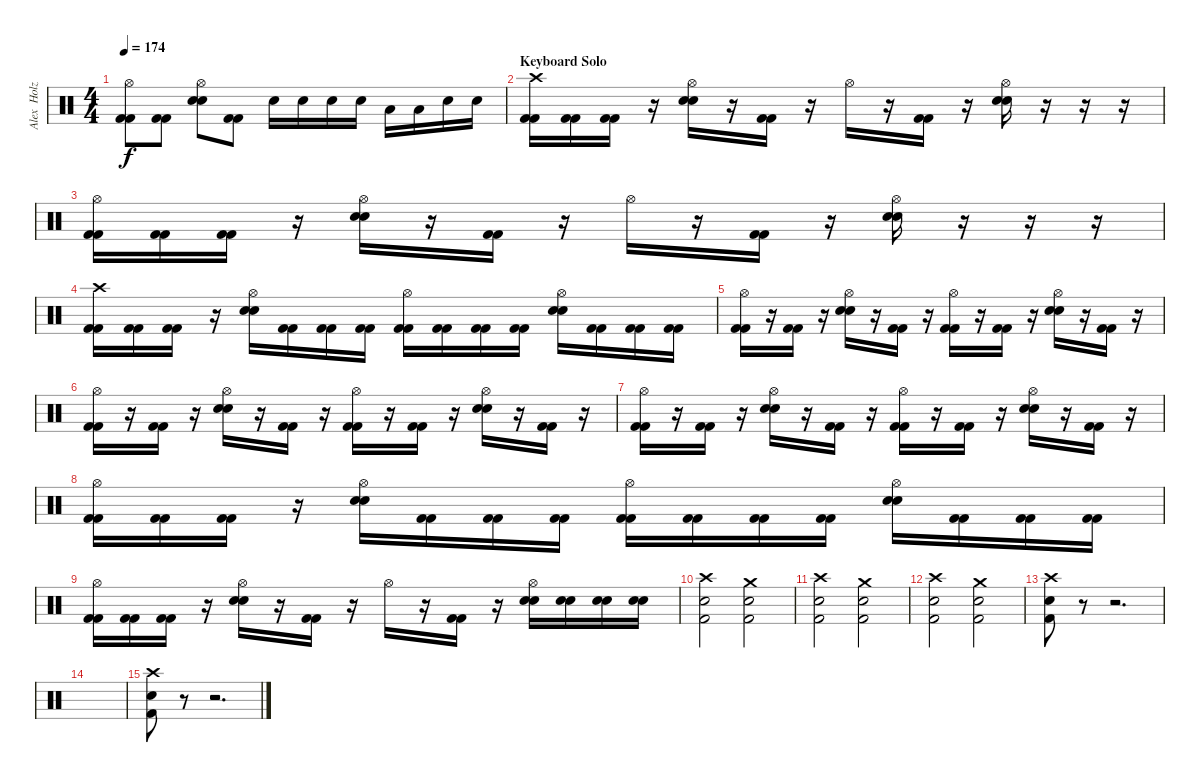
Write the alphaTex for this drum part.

\track ("Alex  Holzwarth (Drums)" "Alex  Holz") {instrument percussion}
\staff {score}
\articulation defaults
\ts (4 4)
\tempo 174
\clef neutral
\ks c
("Hi-Hat (open)" "Kick (hit) 2" "Kick (hit) 2").8{dy f} ("Kick (hit) 2" "Kick (hit) 2").8 ("Hi-Hat (open)" "Snare (hit) 2" "Snare (hit) 2").8 ("Kick (hit) 2" "Kick (hit) 2").8 "Snare (hit) 2".16 "Snare (hit) 2".16 "Snare (hit) 2".16 "Snare (hit) 2".16 "Low Tom (hit)".16 "Low Tom (hit)".16 "Snare (hit) 2".16 "Snare (hit) 2".16 |
\section ("" "Keyboard Solo")
("Crash high (hit)" "Kick (hit) 2" "Kick (hit) 2").16 ("Kick (hit) 2" "Kick (hit) 2").16 ("Kick (hit) 2" "Kick (hit) 2").16 r.16 ("Hi-Hat (open)" "Snare (hit) 2" "Snare (hit) 2").16 r.16 ("Kick (hit) 2" "Kick (hit) 2").16 r.16 "Hi-Hat (open)".16 r.16 ("Kick (hit) 2" "Kick (hit) 2").16 r.16 ("Hi-Hat (open)" "Snare (hit) 2" "Snare (hit) 2").16 r.16 r.16 r.16 |
("Hi-Hat (open)" "Kick (hit) 2" "Kick (hit) 2").16 ("Kick (hit) 2" "Kick (hit) 2").16 ("Kick (hit) 2" "Kick (hit) 2").16 r.16 ("Hi-Hat (open)" "Snare (hit) 2" "Snare (hit) 2").16 r.16 ("Kick (hit) 2" "Kick (hit) 2").16 r.16 "Hi-Hat (open)".16 r.16 ("Kick (hit) 2" "Kick (hit) 2").16 r.16 ("Hi-Hat (open)" "Snare (hit) 2" "Snare (hit) 2").16 r.16 r.16 r.16 |
("Crash high (hit)" "Kick (hit) 2" "Kick (hit) 2").16 ("Kick (hit) 2" "Kick (hit) 2").16 ("Kick (hit) 2" "Kick (hit) 2").16 r.16 ("Hi-Hat (open)" "Snare (hit) 2" "Snare (hit) 2").16 ("Kick (hit) 2" "Kick (hit) 2").16 ("Kick (hit) 2" "Kick (hit) 2").16 ("Kick (hit) 2" "Kick (hit) 2").16 ("Hi-Hat (open)" "Kick (hit) 2" "Kick (hit) 2").16 ("Kick (hit) 2" "Kick (hit) 2").16 ("Kick (hit) 2" "Kick (hit) 2").16 ("Kick (hit) 2" "Kick (hit) 2").16 ("Hi-Hat (open)" "Snare (hit) 2" "Snare (hit) 2").16 ("Kick (hit) 2" "Kick (hit) 2").16 ("Kick (hit) 2" "Kick (hit) 2").16 ("Kick (hit) 2" "Kick (hit) 2").16 |
("Hi-Hat (open)" "Kick (hit) 2" "Kick (hit) 2").16 r.16 ("Kick (hit) 2" "Kick (hit) 2").16 r.16 ("Hi-Hat (open)" "Snare (hit) 2" "Snare (hit) 2").16 r.16 ("Kick (hit) 2" "Kick (hit) 2").16 r.16 ("Hi-Hat (open)" "Kick (hit) 2" "Kick (hit) 2").16 r.16 ("Kick (hit) 2" "Kick (hit) 2").16 r.16 ("Hi-Hat (open)" "Snare (hit) 2" "Snare (hit) 2").16 r.16 ("Kick (hit) 2" "Kick (hit) 2").16 r.16 |
("Hi-Hat (open)" "Kick (hit) 2" "Kick (hit) 2").16 r.16 ("Kick (hit) 2" "Kick (hit) 2").16 r.16 ("Hi-Hat (open)" "Snare (hit) 2" "Snare (hit) 2").16 r.16 ("Kick (hit) 2" "Kick (hit) 2").16 r.16 ("Hi-Hat (open)" "Kick (hit) 2" "Kick (hit) 2").16 r.16 ("Kick (hit) 2" "Kick (hit) 2").16 r.16 ("Hi-Hat (open)" "Snare (hit) 2" "Snare (hit) 2").16 r.16 ("Kick (hit) 2" "Kick (hit) 2").16 r.16 |
("Hi-Hat (open)" "Kick (hit) 2" "Kick (hit) 2").16 r.16 ("Kick (hit) 2" "Kick (hit) 2").16 r.16 ("Hi-Hat (open)" "Snare (hit) 2" "Snare (hit) 2").16 r.16 ("Kick (hit) 2" "Kick (hit) 2").16 r.16 ("Hi-Hat (open)" "Kick (hit) 2" "Kick (hit) 2").16 r.16 ("Kick (hit) 2" "Kick (hit) 2").16 r.16 ("Hi-Hat (open)" "Snare (hit) 2" "Snare (hit) 2").16 r.16 ("Kick (hit) 2" "Kick (hit) 2").16 r.16 |
("Hi-Hat (open)" "Kick (hit) 2" "Kick (hit) 2").16 ("Kick (hit) 2" "Kick (hit) 2").16 ("Kick (hit) 2" "Kick (hit) 2").16 r.16 ("Hi-Hat (open)" "Snare (hit) 2" "Snare (hit) 2").16 ("Kick (hit) 2" "Kick (hit) 2").16 ("Kick (hit) 2" "Kick (hit) 2").16 ("Kick (hit) 2" "Kick (hit) 2").16 ("Hi-Hat (open)" "Kick (hit) 2" "Kick (hit) 2").16 ("Kick (hit) 2" "Kick (hit) 2").16 ("Kick (hit) 2" "Kick (hit) 2").16 ("Kick (hit) 2" "Kick (hit) 2").16 ("Hi-Hat (open)" "Snare (hit) 2" "Snare (hit) 2").16 ("Kick (hit) 2" "Kick (hit) 2").16 ("Kick (hit) 2" "Kick (hit) 2").16 ("Kick (hit) 2" "Kick (hit) 2").16 |
("Hi-Hat (open)" "Kick (hit) 2" "Kick (hit) 2").16 ("Kick (hit) 2" "Kick (hit) 2").16 ("Kick (hit) 2" "Kick (hit) 2").16 r.16 ("Hi-Hat (open)" "Snare (hit) 2" "Snare (hit) 2").16 r.16 ("Kick (hit) 2" "Kick (hit) 2").16 r.16 "Hi-Hat (open)".16 r.16 ("Kick (hit) 2" "Kick (hit) 2").16 r.16 ("Hi-Hat (open)" "Snare (hit) 2" "Snare (hit) 2").16 ("Snare (hit) 2" "Snare (hit) 2").16 ("Snare (hit) 2" "Snare (hit) 2").16 ("Snare (hit) 2" "Snare (hit) 2").16 |
("Crash high (hit)" "Snare (hit) 2" "Kick (hit) 2").2 ("Crash medium (hit)" "Snare (hit) 2" "Kick (hit) 2").2 |
("Crash high (hit)" "Snare (hit) 2" "Kick (hit) 2").2 ("Crash medium (hit)" "Snare (hit) 2" "Kick (hit) 2").2 |
("Crash high (hit)" "Snare (hit) 2" "Kick (hit) 2").2 ("Crash medium (hit)" "Snare (hit) 2" "Kick (hit) 2").2 |
("Crash high (hit)" "Snare (hit) 2" "Kick (hit) 2").8 r.8 r.2{d} |
|
("Crash high (hit)" "Snare (hit) 2" "Kick (hit) 2").8 r.8 r.2{d}
